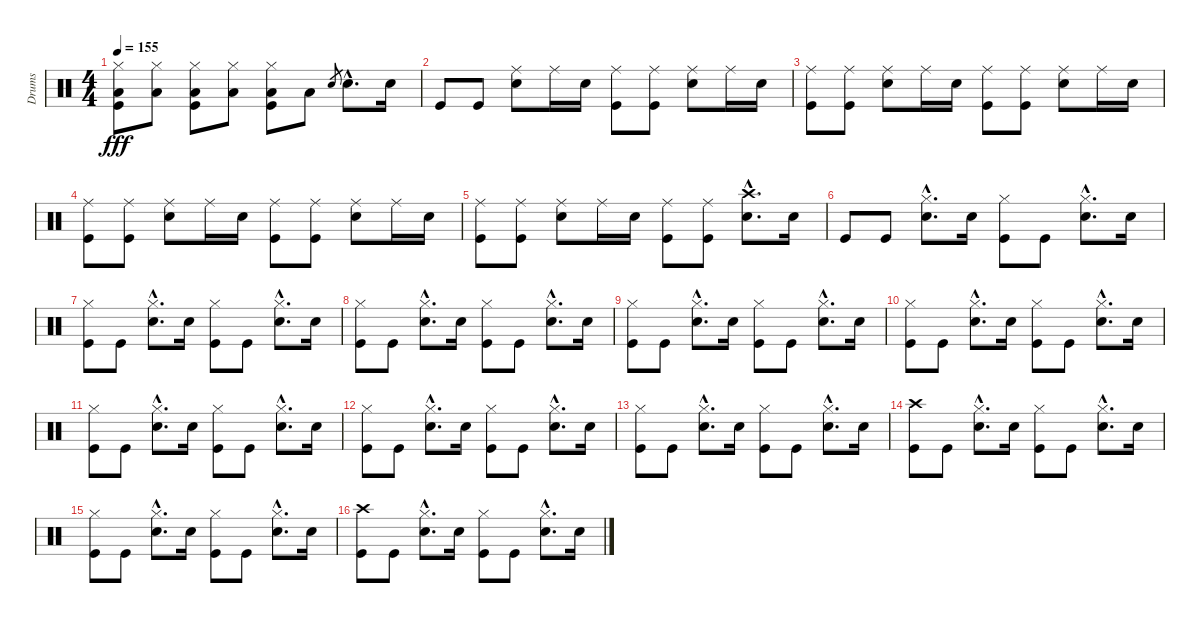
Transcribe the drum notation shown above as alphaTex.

\track ("Drums" "Drums") {instrument percussion}
\staff {score}
\articulation defaults
\ts (4 4)
\tempo 155
\clef neutral
\ks c
("Hi-Hat (closed)" "Low Floor Tom (hit)" "Kick (hit)").8{dy fff} ("Hi-Hat (closed)" "Low Floor Tom (hit)").8 ("Hi-Hat (closed)" "Low Floor Tom (hit)" "Kick (hit)").8 ("Hi-Hat (closed)" "Low Floor Tom (hit)").8 ("Hi-Hat (closed)" "Low Floor Tom (hit)" "Kick (hit)").8 "Low Floor Tom (hit)".8 "Snare (hit) 2".8{gr} "Snare (hit) 2"{hac}.8{d} "Snare (hit) 2".16 |
"Kick (hit)".8 "Kick (hit)".8 ("Ride (middle)" "Snare (hit) 2").8 "Ride (middle)".16 "Snare (hit) 2".16 ("Ride (middle)" "Kick (hit)").8 ("Ride (middle)" "Kick (hit)").8 ("Ride (middle)" "Snare (hit) 2").8 "Ride (middle)".16 "Snare (hit) 2".16 |
("Ride (middle)" "Kick (hit)").8 ("Ride (middle)" "Kick (hit)").8 ("Ride (middle)" "Snare (hit) 2").8 "Ride (middle)".16 "Snare (hit) 2".16 ("Ride (middle)" "Kick (hit)").8 ("Ride (middle)" "Kick (hit)").8 ("Ride (middle)" "Snare (hit) 2").8 "Ride (middle)".16 "Snare (hit) 2".16 |
("Ride (middle)" "Kick (hit)").8 ("Ride (middle)" "Kick (hit)").8 ("Ride (middle)" "Snare (hit) 2").8 "Ride (middle)".16 "Snare (hit) 2".16 ("Ride (middle)" "Kick (hit)").8 ("Ride (middle)" "Kick (hit)").8 ("Ride (middle)" "Snare (hit) 2").8 "Ride (middle)".16 "Snare (hit) 2".16 |
("Ride (middle)" "Kick (hit)").8 ("Ride (middle)" "Kick (hit)").8 ("Ride (middle)" "Snare (hit) 2").8 "Ride (middle)".16 "Snare (hit) 2".16 ("Ride (middle)" "Kick (hit)").8 ("Ride (middle)" "Kick (hit)").8 ("Crash high (hit)"{hac} "Snare (hit) 2"{hac}).8{d} "Snare (hit) 2".16 |
"Kick (hit)".8 "Kick (hit)".8 ("Hi-Hat (closed)"{hac} "Snare (hit) 2"{hac}).8{d} "Snare (hit) 2".16 ("Hi-Hat (closed)" "Kick (hit)").8 "Kick (hit)".8 ("Hi-Hat (closed)"{hac} "Snare (hit) 2"{hac}).8{d} "Snare (hit) 2".16 |
("Hi-Hat (closed)" "Kick (hit)").8 "Kick (hit)".8 ("Hi-Hat (closed)"{hac} "Snare (hit) 2"{hac}).8{d} "Snare (hit) 2".16 ("Hi-Hat (closed)" "Kick (hit)").8 "Kick (hit)".8 ("Hi-Hat (closed)"{hac} "Snare (hit) 2"{hac}).8{d} "Snare (hit) 2".16 |
("Hi-Hat (closed)" "Kick (hit)").8 "Kick (hit)".8 ("Hi-Hat (closed)"{hac} "Snare (hit) 2"{hac}).8{d} "Snare (hit) 2".16 ("Hi-Hat (closed)" "Kick (hit)").8 "Kick (hit)".8 ("Hi-Hat (closed)"{hac} "Snare (hit) 2"{hac}).8{d} "Snare (hit) 2".16 |
("Hi-Hat (closed)" "Kick (hit)").8 "Kick (hit)".8 ("Hi-Hat (closed)"{hac} "Snare (hit) 2"{hac}).8{d} "Snare (hit) 2".16 ("Hi-Hat (closed)" "Kick (hit)").8 "Kick (hit)".8 ("Hi-Hat (closed)"{hac} "Snare (hit) 2"{hac}).8{d} "Snare (hit) 2".16 |
("Hi-Hat (closed)" "Kick (hit)").8 "Kick (hit)".8 ("Hi-Hat (closed)"{hac} "Snare (hit) 2"{hac}).8{d} "Snare (hit) 2".16 ("Hi-Hat (closed)" "Kick (hit)").8 "Kick (hit)".8 ("Hi-Hat (closed)"{hac} "Snare (hit) 2"{hac}).8{d} "Snare (hit) 2".16 |
("Hi-Hat (closed)" "Kick (hit)").8 "Kick (hit)".8 ("Hi-Hat (closed)"{hac} "Snare (hit) 2"{hac}).8{d} "Snare (hit) 2".16 ("Hi-Hat (closed)" "Kick (hit)").8 "Kick (hit)".8 ("Hi-Hat (closed)"{hac} "Snare (hit) 2"{hac}).8{d} "Snare (hit) 2".16 |
("Hi-Hat (closed)" "Kick (hit)").8 "Kick (hit)".8 ("Hi-Hat (closed)"{hac} "Snare (hit) 2"{hac}).8{d} "Snare (hit) 2".16 ("Hi-Hat (closed)" "Kick (hit)").8 "Kick (hit)".8 ("Hi-Hat (closed)"{hac} "Snare (hit) 2"{hac}).8{d} "Snare (hit) 2".16 |
("Hi-Hat (closed)" "Kick (hit)").8 "Kick (hit)".8 ("Hi-Hat (closed)"{hac} "Snare (hit) 2"{hac}).8{d} "Snare (hit) 2".16 ("Hi-Hat (closed)" "Kick (hit)").8 "Kick (hit)".8 ("Hi-Hat (closed)"{hac} "Snare (hit) 2"{hac}).8{d} "Snare (hit) 2".16 |
("Crash high (hit)" "Kick (hit)").8 "Kick (hit)".8 ("Hi-Hat (closed)"{hac} "Snare (hit) 2"{hac}).8{d} "Snare (hit) 2".16 ("Hi-Hat (closed)" "Kick (hit)").8 "Kick (hit)".8 ("Hi-Hat (closed)"{hac} "Snare (hit) 2"{hac}).8{d} "Snare (hit) 2".16 |
("Hi-Hat (closed)" "Kick (hit)").8 "Kick (hit)".8 ("Hi-Hat (closed)"{hac} "Snare (hit) 2"{hac}).8{d} "Snare (hit) 2".16 ("Hi-Hat (closed)" "Kick (hit)").8 "Kick (hit)".8 ("Hi-Hat (closed)"{hac} "Snare (hit) 2"{hac}).8{d} "Snare (hit) 2".16 |
("Crash high (hit)" "Kick (hit)").8 "Kick (hit)".8 ("Hi-Hat (closed)"{hac} "Snare (hit) 2"{hac}).8{d} "Snare (hit) 2".16 ("Hi-Hat (closed)" "Kick (hit)").8 "Kick (hit)".8 ("Hi-Hat (closed)"{hac} "Snare (hit) 2"{hac}).8{d} "Snare (hit) 2".16
